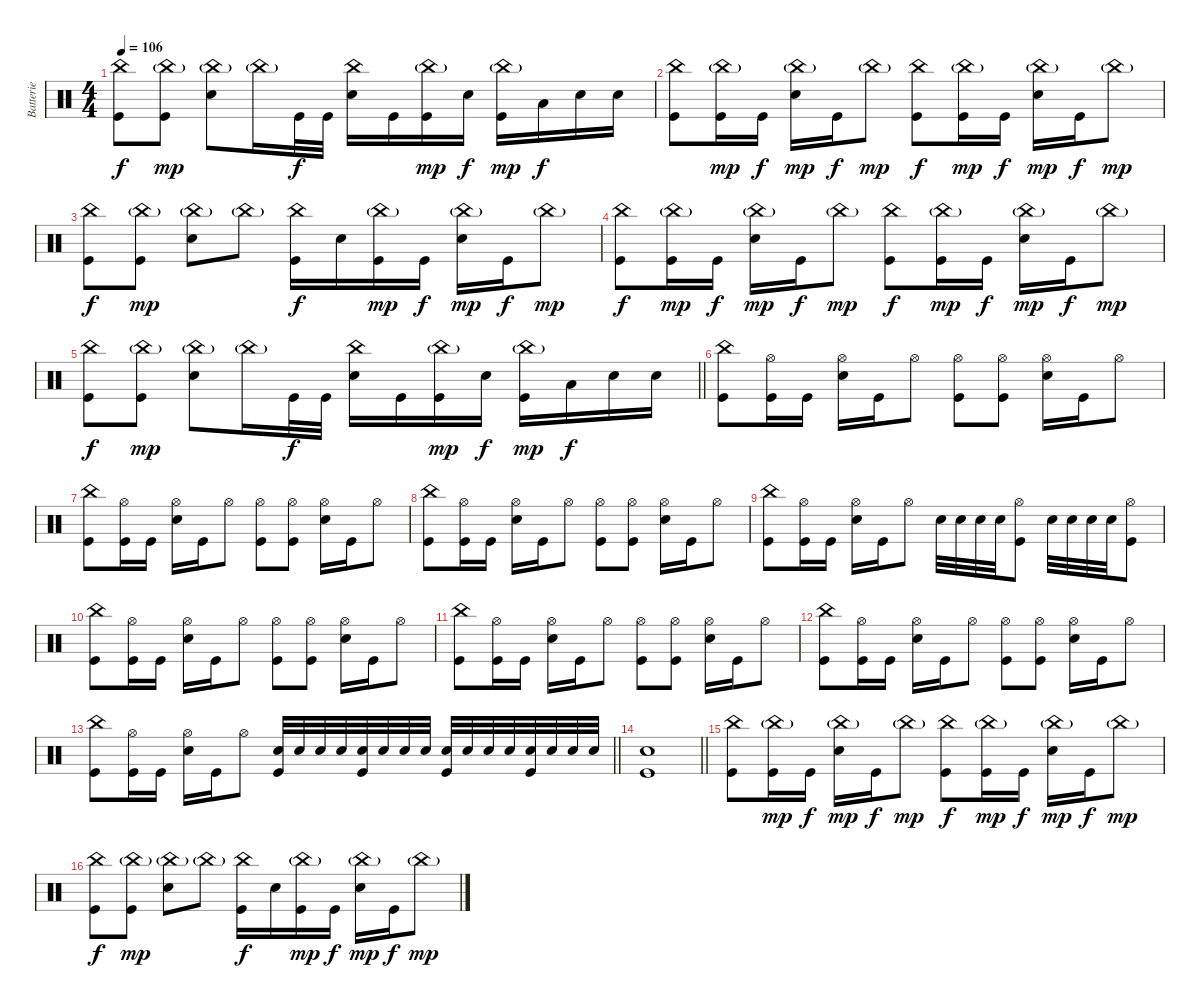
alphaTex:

\track ("Batterie" "Batterie") {instrument percussion}
\staff {score}
\articulation defaults
\ts (4 4)
\tempo 106
\clef neutral
\ks c
("China (hit)" "Kick (hit)").8{dy f} ("China (hit)"{g} "Kick (hit)").8{dy mp} ("China (hit)"{g} "Electric Snare (hit)").8 "China (hit)"{g}.16 "Kick (hit)".32{dy f} "Kick (hit)".32 ("China (hit)" "Electric Snare (hit)").16 "Kick (hit)".16 ("China (hit)"{g} "Kick (hit)").16{dy mp} "Electric Snare (hit)".16{dy f} ("China (hit)"{g} "Kick (hit)").16{dy mp} "Low Tom (hit)".16{dy f} "Electric Snare (hit)".16 "Electric Snare (hit)".16 |
("China (hit)" "Kick (hit)").8 ("China (hit)"{g} "Kick (hit)").16{dy mp} "Kick (hit)".16{dy f} ("China (hit)"{g} "Electric Snare (hit)").16{dy mp} "Kick (hit)".16{dy f} "China (hit)"{g}.8{dy mp} ("China (hit)" "Kick (hit)").8{dy f} ("China (hit)"{g} "Kick (hit)").16{dy mp} "Kick (hit)".16{dy f} ("China (hit)"{g} "Electric Snare (hit)").16{dy mp} "Kick (hit)".16{dy f} "China (hit)"{g}.8{dy mp} |
("China (hit)" "Kick (hit)").8{dy f} ("China (hit)"{g} "Kick (hit)").8{dy mp} ("China (hit)"{g} "Electric Snare (hit)").8 "China (hit)"{g}.8 ("China (hit)" "Kick (hit)").16{dy f} "Electric Snare (hit)".16 ("China (hit)"{g} "Kick (hit)").16{dy mp} "Kick (hit)".16{dy f} ("China (hit)"{g} "Electric Snare (hit)").16{dy mp} "Kick (hit)".16{dy f} "China (hit)"{g}.8{dy mp} |
("China (hit)" "Kick (hit)").8{dy f} ("China (hit)"{g} "Kick (hit)").16{dy mp} "Kick (hit)".16{dy f} ("China (hit)"{g} "Electric Snare (hit)").16{dy mp} "Kick (hit)".16{dy f} "China (hit)"{g}.8{dy mp} ("China (hit)" "Kick (hit)").8{dy f} ("China (hit)"{g} "Kick (hit)").16{dy mp} "Kick (hit)".16{dy f} ("China (hit)"{g} "Electric Snare (hit)").16{dy mp} "Kick (hit)".16{dy f} "China (hit)"{g}.8{dy mp} |
\barLineRight lightlight
("China (hit)" "Kick (hit)").8{dy f} ("China (hit)"{g} "Kick (hit)").8{dy mp} ("China (hit)"{g} "Electric Snare (hit)").8 "China (hit)"{g}.16 "Kick (hit)".32{dy f} "Kick (hit)".32 ("China (hit)" "Electric Snare (hit)").16 "Kick (hit)".16 ("China (hit)"{g} "Kick (hit)").16{dy mp} "Electric Snare (hit)".16{dy f} ("China (hit)"{g} "Kick (hit)").16{dy mp} "Low Tom (hit)".16{dy f} "Electric Snare (hit)".16 "Electric Snare (hit)".16 |
("China (hit)" "Kick (hit)").8 ("Hi-Hat (open)" "Kick (hit)").16 "Kick (hit)".16 ("Hi-Hat (open)" "Electric Snare (hit)").16 "Kick (hit)".16 "Hi-Hat (open)".8 ("Hi-Hat (open)" "Kick (hit)").8 ("Hi-Hat (open)" "Kick (hit)").8 ("Hi-Hat (open)" "Electric Snare (hit)").16 "Kick (hit)".16 "Hi-Hat (open)".8 |
("China (hit)" "Kick (hit)").8 ("Hi-Hat (open)" "Kick (hit)").16 "Kick (hit)".16 ("Hi-Hat (open)" "Electric Snare (hit)").16 "Kick (hit)".16 "Hi-Hat (open)".8 ("Hi-Hat (open)" "Kick (hit)").8 ("Hi-Hat (open)" "Kick (hit)").8 ("Hi-Hat (open)" "Electric Snare (hit)").16 "Kick (hit)".16 "Hi-Hat (open)".8 |
("China (hit)" "Kick (hit)").8 ("Hi-Hat (open)" "Kick (hit)").16 "Kick (hit)".16 ("Hi-Hat (open)" "Electric Snare (hit)").16 "Kick (hit)".16 "Hi-Hat (open)".8 ("Hi-Hat (open)" "Kick (hit)").8 ("Hi-Hat (open)" "Kick (hit)").8 ("Hi-Hat (open)" "Electric Snare (hit)").16 "Kick (hit)".16 "Hi-Hat (open)".8 |
("China (hit)" "Kick (hit)").8 ("Hi-Hat (open)" "Kick (hit)").16 "Kick (hit)".16 ("Hi-Hat (open)" "Electric Snare (hit)").16 "Kick (hit)".16 "Hi-Hat (open)".8 "Electric Snare (hit)".32 "Electric Snare (hit)".32 "Electric Snare (hit)".32 "Electric Snare (hit)".32 ("Hi-Hat (open)" "Kick (hit)").8 "Electric Snare (hit)".32 "Electric Snare (hit)".32 "Electric Snare (hit)".32 "Electric Snare (hit)".32 ("Hi-Hat (open)" "Kick (hit)").8 |
("China (hit)" "Kick (hit)").8 ("Hi-Hat (open)" "Kick (hit)").16 "Kick (hit)".16 ("Hi-Hat (open)" "Electric Snare (hit)").16 "Kick (hit)".16 "Hi-Hat (open)".8 ("Hi-Hat (open)" "Kick (hit)").8 ("Hi-Hat (open)" "Kick (hit)").8 ("Hi-Hat (open)" "Electric Snare (hit)").16 "Kick (hit)".16 "Hi-Hat (open)".8 |
("China (hit)" "Kick (hit)").8 ("Hi-Hat (open)" "Kick (hit)").16 "Kick (hit)".16 ("Hi-Hat (open)" "Electric Snare (hit)").16 "Kick (hit)".16 "Hi-Hat (open)".8 ("Hi-Hat (open)" "Kick (hit)").8 ("Hi-Hat (open)" "Kick (hit)").8 ("Hi-Hat (open)" "Electric Snare (hit)").16 "Kick (hit)".16 "Hi-Hat (open)".8 |
("China (hit)" "Kick (hit)").8 ("Hi-Hat (open)" "Kick (hit)").16 "Kick (hit)".16 ("Hi-Hat (open)" "Electric Snare (hit)").16 "Kick (hit)".16 "Hi-Hat (open)".8 ("Hi-Hat (open)" "Kick (hit)").8 ("Hi-Hat (open)" "Kick (hit)").8 ("Hi-Hat (open)" "Electric Snare (hit)").16 "Kick (hit)".16 "Hi-Hat (open)".8 |
\barLineRight lightlight
("China (hit)" "Kick (hit)").8 ("Hi-Hat (open)" "Kick (hit)").16 "Kick (hit)".16 ("Hi-Hat (open)" "Electric Snare (hit)").16 "Kick (hit)".16 "Hi-Hat (open)".8 ("Electric Snare (hit)" "Kick (hit)").32 "Electric Snare (hit)".32 "Electric Snare (hit)".32 "Electric Snare (hit)".32 ("Electric Snare (hit)" "Kick (hit)").32 "Electric Snare (hit)".32 "Electric Snare (hit)".32 "Electric Snare (hit)".32 ("Electric Snare (hit)" "Kick (hit)").32 "Electric Snare (hit)".32 "Electric Snare (hit)".32 "Electric Snare (hit)".32 ("Electric Snare (hit)" "Kick (hit)").32 "Electric Snare (hit)".32 "Electric Snare (hit)".32 "Electric Snare (hit)".32 |
\barLineRight lightlight
("Electric Snare (hit)" "Kick (hit)").1 |
("China (hit)" "Kick (hit)").8 ("China (hit)"{g} "Kick (hit)").16{dy mp} "Kick (hit)".16{dy f} ("China (hit)"{g} "Electric Snare (hit)").16{dy mp} "Kick (hit)".16{dy f} "China (hit)"{g}.8{dy mp} ("China (hit)" "Kick (hit)").8{dy f} ("China (hit)"{g} "Kick (hit)").16{dy mp} "Kick (hit)".16{dy f} ("China (hit)"{g} "Electric Snare (hit)").16{dy mp} "Kick (hit)".16{dy f} "China (hit)"{g}.8{dy mp} |
("China (hit)" "Kick (hit)").8{dy f} ("China (hit)"{g} "Kick (hit)").8{dy mp} ("China (hit)"{g} "Electric Snare (hit)").8 "China (hit)"{g}.8 ("China (hit)" "Kick (hit)").16{dy f} "Electric Snare (hit)".16 ("China (hit)"{g} "Kick (hit)").16{dy mp} "Kick (hit)".16{dy f} ("China (hit)"{g} "Electric Snare (hit)").16{dy mp} "Kick (hit)".16{dy f} "China (hit)"{g}.8{dy mp}
